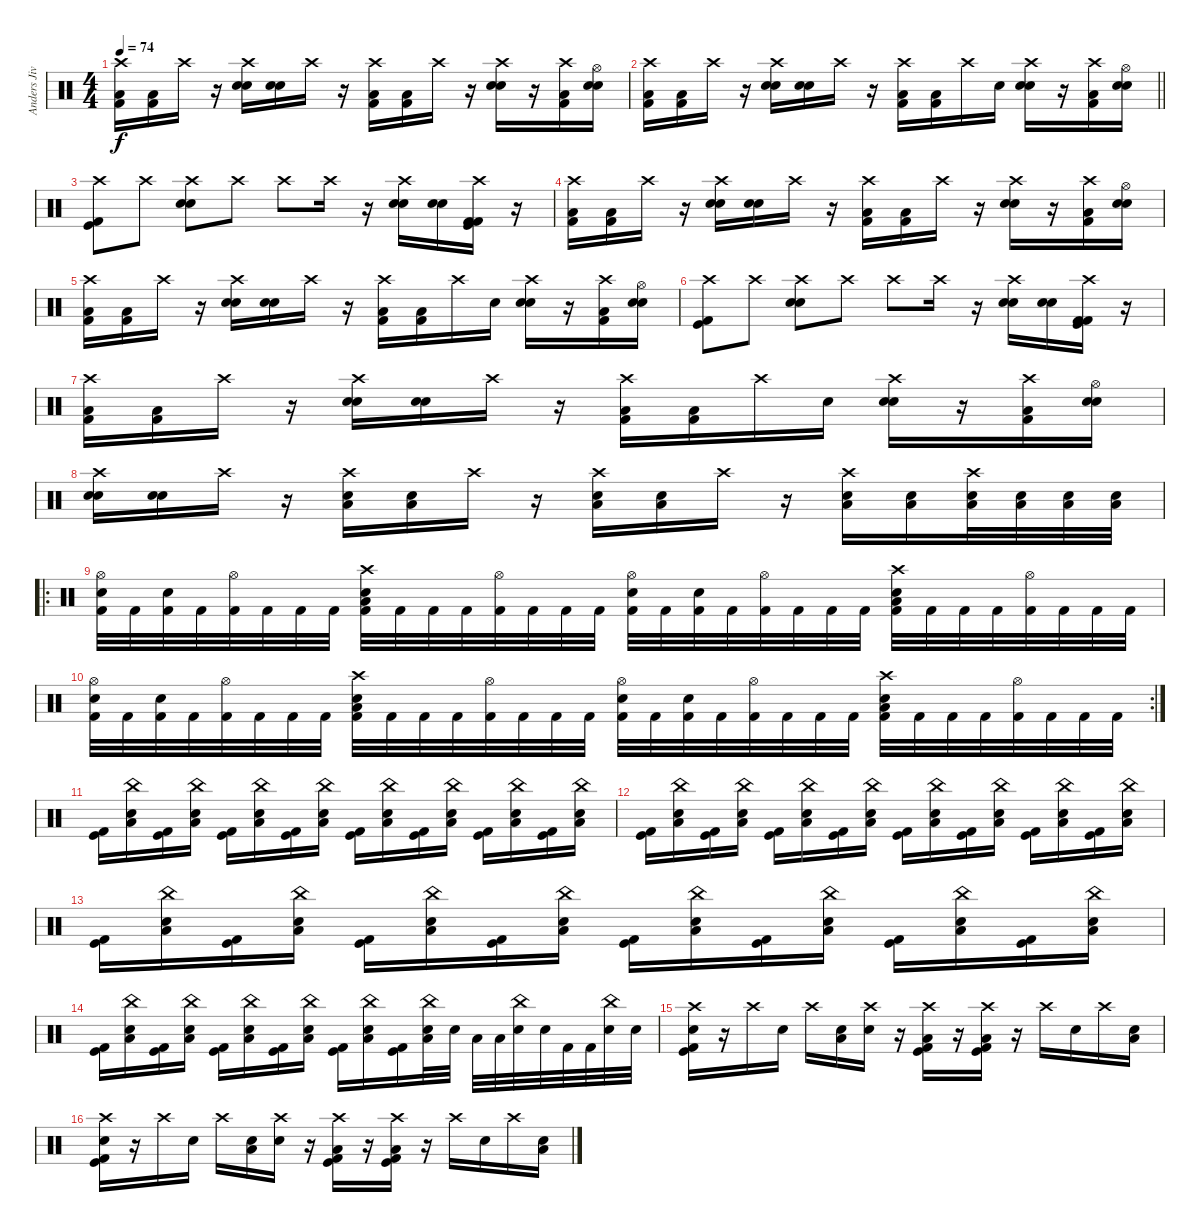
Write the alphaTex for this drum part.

\track ("Anders Jivarp" "Anders Jiv") {instrument percussion}
\staff {score}
\articulation defaults
\ts (4 4)
\tempo 74
\clef neutral
\ks c
("Crash high (hit)" "Low Tom (hit)" "Kick (hit) 2").16{dy f} ("Low Tom (hit)" "Kick (hit) 2").16 "Crash high (hit)".16 r.16 ("Crash high (hit)" "Snare (hit) 2" "Electric Snare (hit)").16 ("Snare (hit) 2" "Electric Snare (hit)").16 "Crash high (hit)".16 r.16 ("Crash high (hit)" "Low Tom (hit)" "Kick (hit) 2").16 ("Low Tom (hit)" "Kick (hit) 2").16 "Crash high (hit)".16 r.16 ("Crash high (hit)" "Snare (hit) 2" "Electric Snare (hit)").16 r.16 ("Crash high (hit)" "Low Tom (hit)" "Kick (hit) 2").16 ("Hi-Hat (open)" "Electric Snare (hit)" "Snare (hit) 2").16 |
\barLineRight lightlight
("Crash high (hit)" "Low Tom (hit)" "Kick (hit) 2").16 ("Low Tom (hit)" "Kick (hit) 2").16 "Crash high (hit)".16 r.16 ("Crash high (hit)" "Snare (hit) 2" "Electric Snare (hit)").16 ("Snare (hit) 2" "Electric Snare (hit)").16 "Crash high (hit)".16 r.16 ("Crash high (hit)" "Low Tom (hit)" "Kick (hit) 2").16 ("Low Tom (hit)" "Kick (hit) 2").16 "Crash high (hit)".16 "Electric Snare (hit)".16 ("Crash high (hit)" "Snare (hit) 2" "Electric Snare (hit)").16 r.16 ("Crash high (hit)" "Low Tom (hit)" "Kick (hit) 2").16 ("Hi-Hat (open)" "Electric Snare (hit)" "Snare (hit) 2").16 |
("Crash high (hit)" "Kick (hit)" "Kick (hit) 2").8 "Crash high (hit)".8 ("Crash high (hit)" "Snare (hit) 2" "Electric Snare (hit)").8 "Crash high (hit)".8 "Crash high (hit)".8 "Crash high (hit)".16 r.16 ("Crash high (hit)" "Electric Snare (hit)" "Snare (hit) 2").16 ("Electric Snare (hit)" "Snare (hit) 2").16 ("Crash high (hit)" "Kick (hit)" "Kick (hit) 2" "Kick (hit) 2").16 r.16 |
("Crash high (hit)" "Low Tom (hit)" "Kick (hit) 2").16 ("Low Tom (hit)" "Kick (hit) 2").16 "Crash high (hit)".16 r.16 ("Crash high (hit)" "Snare (hit) 2" "Electric Snare (hit)").16 ("Snare (hit) 2" "Electric Snare (hit)").16 "Crash high (hit)".16 r.16 ("Crash high (hit)" "Low Tom (hit)" "Kick (hit) 2").16 ("Low Tom (hit)" "Kick (hit) 2").16 "Crash high (hit)".16 r.16 ("Crash high (hit)" "Snare (hit) 2" "Electric Snare (hit)").16 r.16 ("Crash high (hit)" "Low Tom (hit)" "Kick (hit) 2").16 ("Hi-Hat (open)" "Electric Snare (hit)" "Snare (hit) 2").16 |
("Crash high (hit)" "Low Tom (hit)" "Kick (hit) 2").16 ("Low Tom (hit)" "Kick (hit) 2").16 "Crash high (hit)".16 r.16 ("Crash high (hit)" "Snare (hit) 2" "Electric Snare (hit)").16 ("Snare (hit) 2" "Electric Snare (hit)").16 "Crash high (hit)".16 r.16 ("Crash high (hit)" "Low Tom (hit)" "Kick (hit) 2").16 ("Low Tom (hit)" "Kick (hit) 2").16 "Crash high (hit)".16 "Electric Snare (hit)".16 ("Crash high (hit)" "Snare (hit) 2" "Electric Snare (hit)").16 r.16 ("Crash high (hit)" "Low Tom (hit)" "Kick (hit) 2").16 ("Hi-Hat (open)" "Electric Snare (hit)" "Snare (hit) 2").16 |
("Crash high (hit)" "Kick (hit)" "Kick (hit) 2").8 "Crash high (hit)".8 ("Crash high (hit)" "Snare (hit) 2" "Electric Snare (hit)").8 "Crash high (hit)".8 "Crash high (hit)".8 "Crash high (hit)".16 r.16 ("Crash high (hit)" "Electric Snare (hit)" "Snare (hit) 2").16 ("Electric Snare (hit)" "Snare (hit) 2").16 ("Crash high (hit)" "Kick (hit)" "Kick (hit) 2" "Kick (hit) 2").16 r.16 |
("Crash high (hit)" "Low Tom (hit)" "Kick (hit) 2").16 ("Low Tom (hit)" "Kick (hit) 2").16 "Crash high (hit)".16 r.16 ("Crash high (hit)" "Snare (hit) 2" "Electric Snare (hit)").16 ("Snare (hit) 2" "Electric Snare (hit)").16 "Crash high (hit)".16 r.16 ("Crash high (hit)" "Low Tom (hit)" "Kick (hit) 2").16 ("Low Tom (hit)" "Kick (hit) 2").16 "Crash high (hit)".16 "Electric Snare (hit)".16 ("Crash high (hit)" "Snare (hit) 2" "Electric Snare (hit)").16 r.16 ("Crash high (hit)" "Low Tom (hit)" "Kick (hit) 2").16 ("Hi-Hat (open)" "Electric Snare (hit)" "Snare (hit) 2").16 |
("Crash high (hit)" "Snare (hit) 2" "Electric Snare (hit)").16 ("Snare (hit) 2" "Electric Snare (hit)").16 "Crash high (hit)".16 r.16 ("Crash high (hit)" "Electric Snare (hit)" "Low Tom (hit)").16 ("Electric Snare (hit)" "Low Tom (hit)").16 "Crash high (hit)".16 r.16 ("Crash high (hit)" "Electric Snare (hit)" "Low Tom (hit)").16 ("Electric Snare (hit)" "Low Tom (hit)").16 "Crash high (hit)".16 r.16 ("Crash high (hit)" "Electric Snare (hit)" "Low Tom (hit)").16 ("Electric Snare (hit)" "Low Tom (hit)").16 ("Crash high (hit)" "Electric Snare (hit)" "Low Tom (hit)").32 ("Electric Snare (hit)" "Low Tom (hit)").32 ("Electric Snare (hit)" "Low Tom (hit)").32 ("Electric Snare (hit)" "Low Tom (hit)").32 |
\ro
("Hi-Hat (open)" "Snare (hit) 2" "Kick (hit) 2").32 "Kick (hit) 2".32 ("Snare (hit) 2" "Kick (hit) 2").32 "Kick (hit) 2".32 ("Hi-Hat (open)" "Kick (hit) 2").32 "Kick (hit) 2".32 "Kick (hit) 2".32 "Kick (hit) 2".32 ("Crash high (hit)" "Electric Snare (hit)" "Low Tom (hit)" "Kick (hit) 2").32 "Kick (hit) 2".32 "Kick (hit) 2".32 "Kick (hit) 2".32 ("Hi-Hat (open)" "Kick (hit) 2").32 "Kick (hit) 2".32 "Kick (hit) 2".32 "Kick (hit) 2".32 ("Hi-Hat (open)" "Snare (hit) 2" "Kick (hit) 2").32 "Kick (hit) 2".32 ("Snare (hit) 2" "Kick (hit) 2").32 "Kick (hit) 2".32 ("Hi-Hat (open)" "Kick (hit) 2").32 "Kick (hit) 2".32 "Kick (hit) 2".32 "Kick (hit) 2".32 ("Crash high (hit)" "Electric Snare (hit)" "Low Tom (hit)" "Kick (hit) 2").32 "Kick (hit) 2".32 "Kick (hit) 2".32 "Kick (hit) 2".32 ("Hi-Hat (open)" "Kick (hit) 2").32 "Kick (hit) 2".32 "Kick (hit) 2".32 "Kick (hit) 2".32 |
\rc 2
("Hi-Hat (open)" "Snare (hit) 2" "Kick (hit) 2").32 "Kick (hit) 2".32 ("Snare (hit) 2" "Kick (hit) 2").32 "Kick (hit) 2".32 ("Hi-Hat (open)" "Kick (hit) 2").32 "Kick (hit) 2".32 "Kick (hit) 2".32 "Kick (hit) 2".32 ("Crash high (hit)" "Electric Snare (hit)" "Low Tom (hit)" "Kick (hit) 2").32 "Kick (hit) 2".32 "Kick (hit) 2".32 "Kick (hit) 2".32 ("Hi-Hat (open)" "Kick (hit) 2").32 "Kick (hit) 2".32 "Kick (hit) 2".32 "Kick (hit) 2".32 ("Hi-Hat (open)" "Snare (hit) 2" "Kick (hit) 2").32 "Kick (hit) 2".32 ("Snare (hit) 2" "Kick (hit) 2").32 "Kick (hit) 2".32 ("Hi-Hat (open)" "Kick (hit) 2").32 "Kick (hit) 2".32 "Kick (hit) 2".32 "Kick (hit) 2".32 ("Crash high (hit)" "Electric Snare (hit)" "Low Tom (hit)" "Kick (hit) 2").32 "Kick (hit) 2".32 "Kick (hit) 2".32 "Kick (hit) 2".32 ("Hi-Hat (open)" "Kick (hit) 2").32 "Kick (hit) 2".32 "Kick (hit) 2".32 "Kick (hit) 2".32 |
("Kick (hit)" "Kick (hit) 2").16 ("Low Tom (hit)" "China (hit)" "Electric Snare (hit)").16 ("Kick (hit)" "Kick (hit) 2").16 ("Low Tom (hit)" "China (hit)" "Electric Snare (hit)").16 ("Kick (hit)" "Kick (hit) 2").16 ("Low Tom (hit)" "China (hit)" "Electric Snare (hit)").16 ("Kick (hit)" "Kick (hit) 2").16 ("Low Tom (hit)" "China (hit)" "Electric Snare (hit)").16 ("Kick (hit)" "Kick (hit) 2").16 ("Low Tom (hit)" "China (hit)" "Electric Snare (hit)").16 ("Kick (hit)" "Kick (hit) 2").16 ("Low Tom (hit)" "China (hit)" "Electric Snare (hit)").16 ("Kick (hit)" "Kick (hit) 2").16 ("Low Tom (hit)" "China (hit)" "Electric Snare (hit)").16 ("Kick (hit)" "Kick (hit) 2").16 ("Low Tom (hit)" "China (hit)" "Electric Snare (hit)").16 |
("Kick (hit)" "Kick (hit) 2").16 ("Low Tom (hit)" "China (hit)" "Electric Snare (hit)").16 ("Kick (hit)" "Kick (hit) 2").16 ("Low Tom (hit)" "China (hit)" "Electric Snare (hit)").16 ("Kick (hit)" "Kick (hit) 2").16 ("Low Tom (hit)" "China (hit)" "Electric Snare (hit)").16 ("Kick (hit)" "Kick (hit) 2").16 ("Low Tom (hit)" "China (hit)" "Electric Snare (hit)").16 ("Kick (hit)" "Kick (hit) 2").16 ("Low Tom (hit)" "China (hit)" "Electric Snare (hit)").16 ("Kick (hit)" "Kick (hit) 2").16 ("Low Tom (hit)" "China (hit)" "Electric Snare (hit)").16 ("Kick (hit)" "Kick (hit) 2").16 ("Low Tom (hit)" "China (hit)" "Electric Snare (hit)").16 ("Kick (hit)" "Kick (hit) 2").16 ("Low Tom (hit)" "China (hit)" "Electric Snare (hit)").16 |
("Kick (hit)" "Kick (hit) 2").16 ("Low Tom (hit)" "China (hit)" "Electric Snare (hit)").16 ("Kick (hit)" "Kick (hit) 2").16 ("Low Tom (hit)" "China (hit)" "Electric Snare (hit)").16 ("Kick (hit)" "Kick (hit) 2").16 ("Low Tom (hit)" "China (hit)" "Electric Snare (hit)").16 ("Kick (hit)" "Kick (hit) 2").16 ("Low Tom (hit)" "China (hit)" "Electric Snare (hit)").16 ("Kick (hit)" "Kick (hit) 2").16 ("Low Tom (hit)" "China (hit)" "Electric Snare (hit)").16 ("Kick (hit)" "Kick (hit) 2").16 ("Low Tom (hit)" "China (hit)" "Electric Snare (hit)").16 ("Kick (hit)" "Kick (hit) 2").16 ("Low Tom (hit)" "China (hit)" "Electric Snare (hit)").16 ("Kick (hit)" "Kick (hit) 2").16 ("Low Tom (hit)" "China (hit)" "Electric Snare (hit)").16 |
("Kick (hit)" "Kick (hit) 2").16 ("Low Tom (hit)" "China (hit)" "Electric Snare (hit)").16 ("Kick (hit)" "Kick (hit) 2").16 ("Low Tom (hit)" "China (hit)" "Electric Snare (hit)").16 ("Kick (hit)" "Kick (hit) 2").16 ("Low Tom (hit)" "China (hit)" "Electric Snare (hit)").16 ("Kick (hit)" "Kick (hit) 2").16 ("Low Tom (hit)" "China (hit)" "Electric Snare (hit)").16 ("Kick (hit)" "Kick (hit) 2").16 ("Low Tom (hit)" "China (hit)" "Electric Snare (hit)").16 ("Kick (hit)" "Kick (hit) 2").16 ("Low Tom (hit)" "China (hit)" "Electric Snare (hit)").32 "Electric Snare (hit)".32 "Low Tom (hit)".32 "Low Tom (hit)".32 ("China (hit)" "Snare (hit) 2").32 "Snare (hit) 2".32 "Kick (hit) 2".32 "Kick (hit) 2".32 ("China (hit)" "Electric Snare (hit)").32 "Electric Snare (hit)".32 |
("Crash high (hit)" "Snare (hit) 2" "Kick (hit) 2" "Kick (hit)").16 r.16 "Crash high (hit)".16 "Electric Snare (hit)".16 "Crash high (hit)".16 ("Low Tom (hit)" "Snare (hit) 2").16 ("Crash high (hit)" "Electric Snare (hit)").16 r.16 ("Crash high (hit)" "Kick (hit)" "Low Tom (hit)" "Kick (hit) 2").16 r.16 ("Crash high (hit)" "Kick (hit)" "Low Tom (hit)" "Kick (hit) 2").16 r.16 "Crash high (hit)".16 "Electric Snare (hit)".16 "Crash high (hit)".16 ("Low Tom (hit)" "Snare (hit) 2").16 |
("Crash high (hit)" "Snare (hit) 2" "Kick (hit) 2" "Kick (hit)").16 r.16 "Crash high (hit)".16 "Electric Snare (hit)".16 "Crash high (hit)".16 ("Low Tom (hit)" "Snare (hit) 2").16 ("Crash high (hit)" "Electric Snare (hit)").16 r.16 ("Crash high (hit)" "Kick (hit)" "Low Tom (hit)" "Kick (hit) 2").16 r.16 ("Crash high (hit)" "Kick (hit)" "Low Tom (hit)" "Kick (hit) 2").16 r.16 "Crash high (hit)".16 "Electric Snare (hit)".16 "Crash high (hit)".16 ("Low Tom (hit)" "Snare (hit) 2").16
